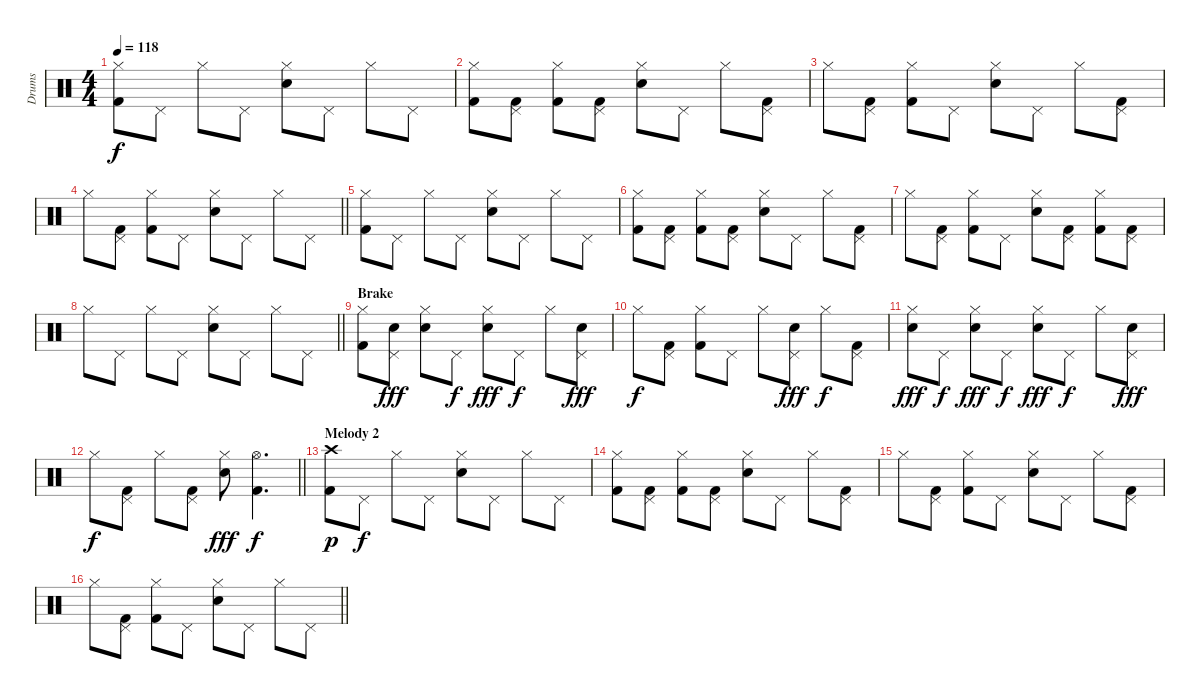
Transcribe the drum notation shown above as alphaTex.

\track ("Drums" "Drums") {instrument percussion}
\staff {score}
\articulation defaults
\ts (4 4)
\tempo 118
\clef neutral
\ks c
("Hi-Hat (closed)" "Kick (hit) 2").8{dy f} "Pedal Hi-Hat (hit)".8 "Hi-Hat (closed)".8 "Pedal Hi-Hat (hit)".8 ("Hi-Hat (closed)" "Electric Snare (hit)").8 "Pedal Hi-Hat (hit)".8 "Hi-Hat (closed)".8 "Pedal Hi-Hat (hit)".8 |
("Hi-Hat (closed)" "Kick (hit) 2").8 ("Pedal Hi-Hat (hit)" "Kick (hit) 2").8 ("Hi-Hat (closed)" "Kick (hit) 2").8 ("Pedal Hi-Hat (hit)" "Kick (hit) 2").8 ("Hi-Hat (closed)" "Electric Snare (hit)").8 "Pedal Hi-Hat (hit)".8 "Hi-Hat (closed)".8 ("Pedal Hi-Hat (hit)" "Kick (hit) 2").8 |
"Hi-Hat (closed)".8 ("Pedal Hi-Hat (hit)" "Kick (hit) 2").8 ("Hi-Hat (closed)" "Kick (hit) 2").8 "Pedal Hi-Hat (hit)".8 ("Hi-Hat (closed)" "Electric Snare (hit)").8 "Pedal Hi-Hat (hit)".8 "Hi-Hat (closed)".8 ("Pedal Hi-Hat (hit)" "Kick (hit) 2").8 |
\barLineRight lightlight "Hi-Hat (closed)".8
("Pedal Hi-Hat (hit)" "Kick (hit) 2").8 ("Hi-Hat (closed)" "Kick (hit) 2").8 "Pedal Hi-Hat (hit)".8 ("Hi-Hat (closed)" "Electric Snare (hit)").8 "Pedal Hi-Hat (hit)".8 "Hi-Hat (closed)".8 "Pedal Hi-Hat (hit)".8 |
("Hi-Hat (closed)" "Kick (hit) 2").8 "Pedal Hi-Hat (hit)".8 "Hi-Hat (closed)".8 "Pedal Hi-Hat (hit)".8 ("Hi-Hat (closed)" "Electric Snare (hit)").8 "Pedal Hi-Hat (hit)".8 "Hi-Hat (closed)".8 "Pedal Hi-Hat (hit)".8 |
("Hi-Hat (closed)" "Kick (hit) 2").8 ("Pedal Hi-Hat (hit)" "Kick (hit) 2").8 ("Hi-Hat (closed)" "Kick (hit) 2").8 ("Pedal Hi-Hat (hit)" "Kick (hit) 2").8 ("Hi-Hat (closed)" "Electric Snare (hit)").8 "Pedal Hi-Hat (hit)".8 "Hi-Hat (closed)".8 ("Pedal Hi-Hat (hit)" "Kick (hit) 2").8 |
"Hi-Hat (closed)".8 ("Pedal Hi-Hat (hit)" "Kick (hit) 2").8 ("Hi-Hat (closed)" "Kick (hit) 2").8 "Pedal Hi-Hat (hit)".8 ("Hi-Hat (closed)" "Electric Snare (hit)").8 ("Pedal Hi-Hat (hit)" "Kick (hit) 2").8 ("Hi-Hat (closed)" "Kick (hit) 2").8 ("Pedal Hi-Hat (hit)" "Kick (hit) 2").8 |
\barLineRight lightlight "Hi-Hat (closed)".8 "Pedal Hi-Hat (hit)".8 "Hi-Hat (closed)".8 "Pedal Hi-Hat (hit)".8
("Hi-Hat (closed)" "Electric Snare (hit)").8 "Pedal Hi-Hat (hit)".8 "Hi-Hat (closed)".8 "Pedal Hi-Hat (hit)".8 |
\section ("" "Brake")
("Hi-Hat (closed)" "Kick (hit) 2").8 ("Pedal Hi-Hat (hit)" "Electric Snare (hit)").8{dy fff} ("Hi-Hat (closed)" "Electric Snare (hit)").8 "Pedal Hi-Hat (hit)".8{dy f} ("Hi-Hat (closed)" "Electric Snare (hit)").8{dy fff} "Pedal Hi-Hat (hit)".8{dy f} "Hi-Hat (closed)".8 ("Pedal Hi-Hat (hit)" "Electric Snare (hit)").8{dy fff} |
"Hi-Hat (closed)".8{dy f} ("Pedal Hi-Hat (hit)" "Kick (hit) 2").8 ("Hi-Hat (closed)" "Kick (hit) 2").8 "Pedal Hi-Hat (hit)".8 "Hi-Hat (closed)".8 ("Pedal Hi-Hat (hit)" "Electric Snare (hit)").8{dy fff} "Hi-Hat (closed)".8{dy f} ("Pedal Hi-Hat (hit)" "Kick (hit) 2").8 |
("Hi-Hat (closed)" "Electric Snare (hit)").8{dy fff} "Pedal Hi-Hat (hit)".8{dy f} ("Hi-Hat (closed)" "Electric Snare (hit)").8{dy fff} "Pedal Hi-Hat (hit)".8{dy f} ("Hi-Hat (closed)" "Electric Snare (hit)").8{dy fff} "Pedal Hi-Hat (hit)".8{dy f} "Hi-Hat (closed)".8 ("Pedal Hi-Hat (hit)" "Electric Snare (hit)").8{dy fff} |
\barLineRight lightlight "Hi-Hat (closed)".8{dy f}
("Pedal Hi-Hat (hit)" "Kick (hit) 2").8 "Hi-Hat (closed)".8 ("Pedal Hi-Hat (hit)" "Kick (hit) 2").8 ("Hi-Hat (closed)" "Electric Snare (hit)").8{dy fff} ("Kick (hit) 2" "Hi-Hat (open)").4{d dy f} |
\section ("" "Melody 2")
("Crash high (hit)" "Kick (hit) 2").8{dy p} "Pedal Hi-Hat (hit)".8{dy f} "Hi-Hat (closed)".8 "Pedal Hi-Hat (hit)".8 ("Hi-Hat (closed)" "Electric Snare (hit)").8 "Pedal Hi-Hat (hit)".8 "Hi-Hat (closed)".8 "Pedal Hi-Hat (hit)".8 |
("Hi-Hat (closed)" "Kick (hit) 2").8 ("Pedal Hi-Hat (hit)" "Kick (hit) 2").8 ("Hi-Hat (closed)" "Kick (hit) 2").8 ("Pedal Hi-Hat (hit)" "Kick (hit) 2").8 ("Hi-Hat (closed)" "Electric Snare (hit)").8 "Pedal Hi-Hat (hit)".8 "Hi-Hat (closed)".8 ("Pedal Hi-Hat (hit)" "Kick (hit) 2").8 |
"Hi-Hat (closed)".8 ("Pedal Hi-Hat (hit)" "Kick (hit) 2").8 ("Hi-Hat (closed)" "Kick (hit) 2").8 "Pedal Hi-Hat (hit)".8 ("Hi-Hat (closed)" "Electric Snare (hit)").8 "Pedal Hi-Hat (hit)".8 "Hi-Hat (closed)".8 ("Pedal Hi-Hat (hit)" "Kick (hit) 2").8 |
\barLineRight lightlight "Hi-Hat (closed)".8
("Pedal Hi-Hat (hit)" "Kick (hit) 2").8 ("Hi-Hat (closed)" "Kick (hit) 2").8 "Pedal Hi-Hat (hit)".8 ("Hi-Hat (closed)" "Electric Snare (hit)").8 "Pedal Hi-Hat (hit)".8 "Hi-Hat (closed)".8 "Pedal Hi-Hat (hit)".8
